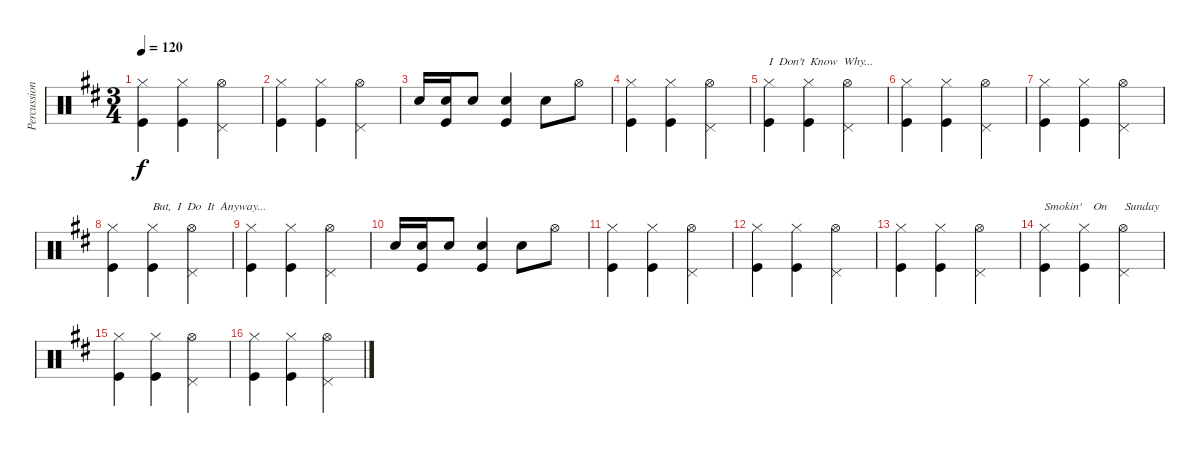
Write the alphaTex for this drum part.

\track ("Percussion" "Percussion") {instrument percussion}
\staff {score}
\articulation defaults
\ts (3 4)
\tempo 120
\clef neutral
\ks bminor
("Hi-Hat (closed)" "Kick (hit)").4{dy f} ("Hi-Hat (closed)" "Kick (hit)").4 ("Pedal Hi-Hat (hit)" "Hi-Hat (open)").4 |
("Hi-Hat (closed)" "Kick (hit)").4 ("Hi-Hat (closed)" "Kick (hit)").4 ("Pedal Hi-Hat (hit)" "Hi-Hat (open)").4 |
"Snare (hit) 2".16 ("Snare (hit) 2" "Kick (hit)").16 "Snare (hit) 2".8 ("Snare (hit) 2" "Kick (hit)").4 "Snare (hit) 2".8 "Hi-Hat (open)".8 |
("Hi-Hat (closed)" "Kick (hit)").4 ("Hi-Hat (closed)" "Kick (hit)").4 ("Pedal Hi-Hat (hit)" "Hi-Hat (open)").4 |
("Hi-Hat (closed)" "Kick (hit)").4{txt "I  Don't  Know  Why..."} ("Hi-Hat (closed)" "Kick (hit)").4 ("Pedal Hi-Hat (hit)" "Hi-Hat (open)").4 |
("Hi-Hat (closed)" "Kick (hit)").4 ("Hi-Hat (closed)" "Kick (hit)").4 ("Pedal Hi-Hat (hit)" "Hi-Hat (open)").4 |
("Hi-Hat (closed)" "Kick (hit)").4 ("Hi-Hat (closed)" "Kick (hit)").4 ("Pedal Hi-Hat (hit)" "Hi-Hat (open)").4 |
("Hi-Hat (closed)" "Kick (hit)").4 ("Hi-Hat (closed)" "Kick (hit)").4{txt "But,  I  Do  It  Anyway..."} ("Pedal Hi-Hat (hit)" "Hi-Hat (open)").4 |
("Hi-Hat (closed)" "Kick (hit)").4 ("Hi-Hat (closed)" "Kick (hit)").4 ("Pedal Hi-Hat (hit)" "Hi-Hat (open)").4 |
"Snare (hit) 2".16 ("Snare (hit) 2" "Kick (hit)").16 "Snare (hit) 2".8 ("Snare (hit) 2" "Kick (hit)").4 "Snare (hit) 2".8 "Hi-Hat (open)".8 |
("Hi-Hat (closed)" "Kick (hit)").4 ("Hi-Hat (closed)" "Kick (hit)").4 ("Pedal Hi-Hat (hit)" "Hi-Hat (open)").4 |
("Hi-Hat (closed)" "Kick (hit)").4 ("Hi-Hat (closed)" "Kick (hit)").4 ("Pedal Hi-Hat (hit)" "Hi-Hat (open)").4 |
("Hi-Hat (closed)" "Kick (hit)").4 ("Hi-Hat (closed)" "Kick (hit)").4 ("Pedal Hi-Hat (hit)" "Hi-Hat (open)").4 |
("Hi-Hat (closed)" "Kick (hit)").4{txt "Smokin'    On      Sunday"} ("Hi-Hat (closed)" "Kick (hit)").4 ("Pedal Hi-Hat (hit)" "Hi-Hat (open)").4 |
("Hi-Hat (closed)" "Kick (hit)").4 ("Hi-Hat (closed)" "Kick (hit)").4 ("Pedal Hi-Hat (hit)" "Hi-Hat (open)").4 |
("Hi-Hat (closed)" "Kick (hit)").4 ("Hi-Hat (closed)" "Kick (hit)").4 ("Pedal Hi-Hat (hit)" "Hi-Hat (open)").4
